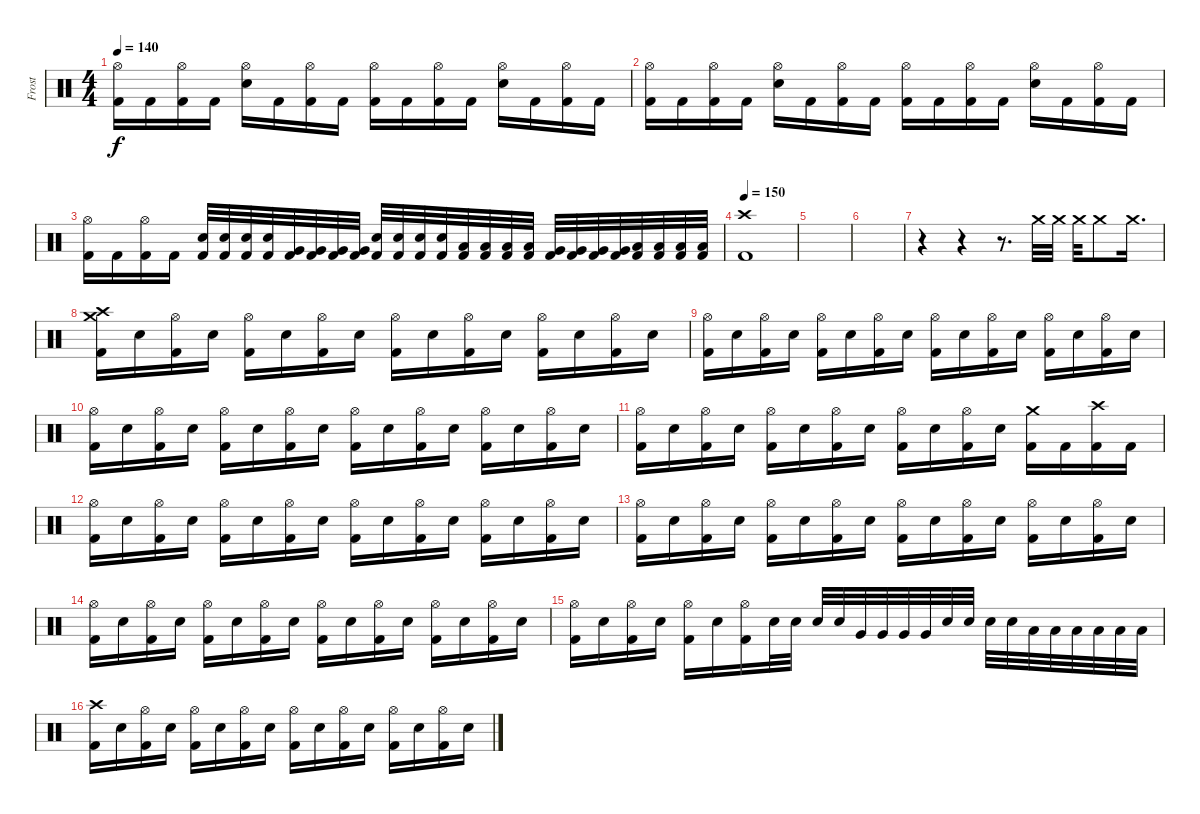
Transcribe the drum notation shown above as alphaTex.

\track ("Frost" "Frost") {instrument percussion}
\staff {score}
\articulation defaults
\ts (4 4)
\tempo 140
\clef neutral
\ks c
("Hi-Hat (open)" "Kick (hit) 2").16{dy f} "Kick (hit) 2".16 ("Hi-Hat (open)" "Kick (hit) 2").16 "Kick (hit) 2".16 ("Hi-Hat (open)" "Snare (hit) 2").16 "Kick (hit) 2".16 ("Hi-Hat (open)" "Kick (hit) 2").16 "Kick (hit) 2".16 ("Hi-Hat (open)" "Kick (hit) 2").16 "Kick (hit) 2".16 ("Hi-Hat (open)" "Kick (hit) 2").16 "Kick (hit) 2".16 ("Hi-Hat (open)" "Snare (hit) 2").16 "Kick (hit) 2".16 ("Hi-Hat (open)" "Kick (hit) 2").16 "Kick (hit) 2".16 |
("Hi-Hat (open)" "Kick (hit) 2").16 "Kick (hit) 2".16 ("Hi-Hat (open)" "Kick (hit) 2").16 "Kick (hit) 2".16 ("Hi-Hat (open)" "Snare (hit) 2").16 "Kick (hit) 2".16 ("Hi-Hat (open)" "Kick (hit) 2").16 "Kick (hit) 2".16 ("Hi-Hat (open)" "Kick (hit) 2").16 "Kick (hit) 2".16 ("Hi-Hat (open)" "Kick (hit) 2").16 "Kick (hit) 2".16 ("Hi-Hat (open)" "Snare (hit) 2").16 "Kick (hit) 2".16 ("Hi-Hat (open)" "Kick (hit) 2").16 "Kick (hit) 2".16 |
("Hi-Hat (open)" "Kick (hit) 2").16 "Kick (hit) 2".16 ("Hi-Hat (open)" "Kick (hit) 2").16 "Kick (hit) 2".16 ("Snare (hit) 2" "Kick (hit) 2").32 ("Snare (hit) 2" "Kick (hit) 2").32 ("Snare (hit) 2" "Kick (hit) 2").32 ("Snare (hit) 2" "Kick (hit) 2").32 ("Very Low Tom (hit)" "Kick (hit) 2").32 ("Very Low Tom (hit)" "Kick (hit) 2").32 ("Very Low Tom (hit)" "Kick (hit) 2").32 ("Very Low Tom (hit)" "Kick (hit) 2").32 ("Snare (hit) 2" "Kick (hit) 2").32 ("Snare (hit) 2" "Kick (hit) 2").32 ("Snare (hit) 2" "Kick (hit) 2").32 ("Snare (hit) 2" "Kick (hit) 2").32 ("Low Tom (hit)" "Kick (hit) 2").32 ("Low Tom (hit)" "Kick (hit) 2").32 ("Low Tom (hit)" "Kick (hit) 2").32 ("Low Tom (hit)" "Kick (hit) 2").32 ("Very Low Tom (hit)" "Kick (hit) 2").32 ("Very Low Tom (hit)" "Kick (hit) 2").32 ("Very Low Tom (hit)" "Kick (hit) 2").32 ("Very Low Tom (hit)" "Kick (hit) 2").32 ("Low Floor Tom (hit)" "Kick (hit) 2").32 ("Low Floor Tom (hit)" "Kick (hit) 2").32 ("Low Floor Tom (hit)" "Kick (hit) 2").32 ("Low Floor Tom (hit)" "Kick (hit) 2").32 |
\tempo 150
("Crash high (hit)" "Kick (hit) 2").1 |
|
|
r.4 r.4 r.8{d volume 0} "Crash medium (hit)".32{volume 13} "Crash medium (hit)".32 "Crash medium (hit)".32 "Crash medium (hit)".8 "Crash medium (hit)".16{d} |
("Crash medium (hit)" "Crash high (hit)" "Kick (hit) 2").16 "Snare (hit) 2".16 ("Hi-Hat (open)" "Kick (hit) 2").16 "Snare (hit) 2".16 ("Hi-Hat (open)" "Kick (hit) 2").16 "Snare (hit) 2".16 ("Hi-Hat (open)" "Kick (hit) 2").16 "Snare (hit) 2".16 ("Hi-Hat (open)" "Kick (hit) 2").16 "Snare (hit) 2".16 ("Hi-Hat (open)" "Kick (hit) 2").16 "Snare (hit) 2".16 ("Hi-Hat (open)" "Kick (hit) 2").16 "Snare (hit) 2".16 ("Hi-Hat (open)" "Kick (hit) 2").16 "Snare (hit) 2".16 |
("Hi-Hat (open)" "Kick (hit) 2").16 "Snare (hit) 2".16 ("Hi-Hat (open)" "Kick (hit) 2").16 "Snare (hit) 2".16 ("Hi-Hat (open)" "Kick (hit) 2").16 "Snare (hit) 2".16 ("Hi-Hat (open)" "Kick (hit) 2").16 "Snare (hit) 2".16 ("Hi-Hat (open)" "Kick (hit) 2").16 "Snare (hit) 2".16 ("Hi-Hat (open)" "Kick (hit) 2").16 "Snare (hit) 2".16 ("Hi-Hat (open)" "Kick (hit) 2").16 "Snare (hit) 2".16 ("Hi-Hat (open)" "Kick (hit) 2").16 "Snare (hit) 2".16 |
("Hi-Hat (open)" "Kick (hit) 2").16 "Snare (hit) 2".16 ("Hi-Hat (open)" "Kick (hit) 2").16 "Snare (hit) 2".16 ("Hi-Hat (open)" "Kick (hit) 2").16 "Snare (hit) 2".16 ("Hi-Hat (open)" "Kick (hit) 2").16 "Snare (hit) 2".16 ("Hi-Hat (open)" "Kick (hit) 2").16 "Snare (hit) 2".16 ("Hi-Hat (open)" "Kick (hit) 2").16 "Snare (hit) 2".16 ("Hi-Hat (open)" "Kick (hit) 2").16 "Snare (hit) 2".16 ("Hi-Hat (open)" "Kick (hit) 2").16 "Snare (hit) 2".16 |
("Hi-Hat (open)" "Kick (hit) 2").16 "Snare (hit) 2".16 ("Hi-Hat (open)" "Kick (hit) 2").16 "Snare (hit) 2".16 ("Hi-Hat (open)" "Kick (hit) 2").16 "Snare (hit) 2".16 ("Hi-Hat (open)" "Kick (hit) 2").16 "Snare (hit) 2".16 ("Hi-Hat (open)" "Kick (hit) 2").16 "Snare (hit) 2".16 ("Hi-Hat (open)" "Kick (hit) 2").16 "Snare (hit) 2".16 ("Crash medium (hit)" "Kick (hit) 2").16 "Kick (hit) 2".16 ("Crash high (hit)" "Kick (hit) 2").16 "Kick (hit) 2".16 |
("Hi-Hat (open)" "Kick (hit) 2").16 "Snare (hit) 2".16 ("Hi-Hat (open)" "Kick (hit) 2").16 "Snare (hit) 2".16 ("Hi-Hat (open)" "Kick (hit) 2").16 "Snare (hit) 2".16 ("Hi-Hat (open)" "Kick (hit) 2").16 "Snare (hit) 2".16 ("Hi-Hat (open)" "Kick (hit) 2").16 "Snare (hit) 2".16 ("Hi-Hat (open)" "Kick (hit) 2").16 "Snare (hit) 2".16 ("Hi-Hat (open)" "Kick (hit) 2").16 "Snare (hit) 2".16 ("Hi-Hat (open)" "Kick (hit) 2").16 "Snare (hit) 2".16 |
("Hi-Hat (open)" "Kick (hit) 2").16 "Snare (hit) 2".16 ("Hi-Hat (open)" "Kick (hit) 2").16 "Snare (hit) 2".16 ("Hi-Hat (open)" "Kick (hit) 2").16 "Snare (hit) 2".16 ("Hi-Hat (open)" "Kick (hit) 2").16 "Snare (hit) 2".16 ("Hi-Hat (open)" "Kick (hit) 2").16 "Snare (hit) 2".16 ("Hi-Hat (open)" "Kick (hit) 2").16 "Snare (hit) 2".16 ("Hi-Hat (open)" "Kick (hit) 2").16 "Snare (hit) 2".16 ("Hi-Hat (open)" "Kick (hit) 2").16 "Snare (hit) 2".16 |
("Hi-Hat (open)" "Kick (hit) 2").16 "Snare (hit) 2".16 ("Hi-Hat (open)" "Kick (hit) 2").16 "Snare (hit) 2".16 ("Hi-Hat (open)" "Kick (hit) 2").16 "Snare (hit) 2".16 ("Hi-Hat (open)" "Kick (hit) 2").16 "Snare (hit) 2".16 ("Hi-Hat (open)" "Kick (hit) 2").16 "Snare (hit) 2".16 ("Hi-Hat (open)" "Kick (hit) 2").16 "Snare (hit) 2".16 ("Hi-Hat (open)" "Kick (hit) 2").16 "Snare (hit) 2".16 ("Hi-Hat (open)" "Kick (hit) 2").16 "Snare (hit) 2".16 |
("Hi-Hat (open)" "Kick (hit) 2").16 "Snare (hit) 2".16 ("Hi-Hat (open)" "Kick (hit) 2").16 "Snare (hit) 2".16 ("Hi-Hat (open)" "Kick (hit) 2").16 "Snare (hit) 2".16 ("Hi-Hat (open)" "Kick (hit) 2").16 "Snare (hit) 2".32 "Snare (hit) 2".32 "Snare (hit) 2".32 "Snare (hit) 2".32 "Very Low Tom (hit)".32 "Very Low Tom (hit)".32 "Very Low Tom (hit)".32 "Very Low Tom (hit)".32 "Snare (hit) 2".32 "Snare (hit) 2".32 "Snare (hit) 2".32 "Snare (hit) 2".32 "Low Floor Tom (hit)".32 "Low Floor Tom (hit)".32 "Low Floor Tom (hit)".32 "Low Floor Tom (hit)".32 "Low Floor Tom (hit)".32 "Low Floor Tom (hit)".32 |
("Crash high (hit)" "Kick (hit) 2").16 "Snare (hit) 2".16 ("Hi-Hat (open)" "Kick (hit) 2").16 "Snare (hit) 2".16 ("Hi-Hat (open)" "Kick (hit) 2").16 "Snare (hit) 2".16 ("Hi-Hat (open)" "Kick (hit) 2").16 "Snare (hit) 2".16 ("Hi-Hat (open)" "Kick (hit) 2").16 "Snare (hit) 2".16 ("Hi-Hat (open)" "Kick (hit) 2").16 "Snare (hit) 2".16 ("Hi-Hat (open)" "Kick (hit) 2").16 "Snare (hit) 2".16 ("Hi-Hat (open)" "Kick (hit) 2").16 "Snare (hit) 2".16
